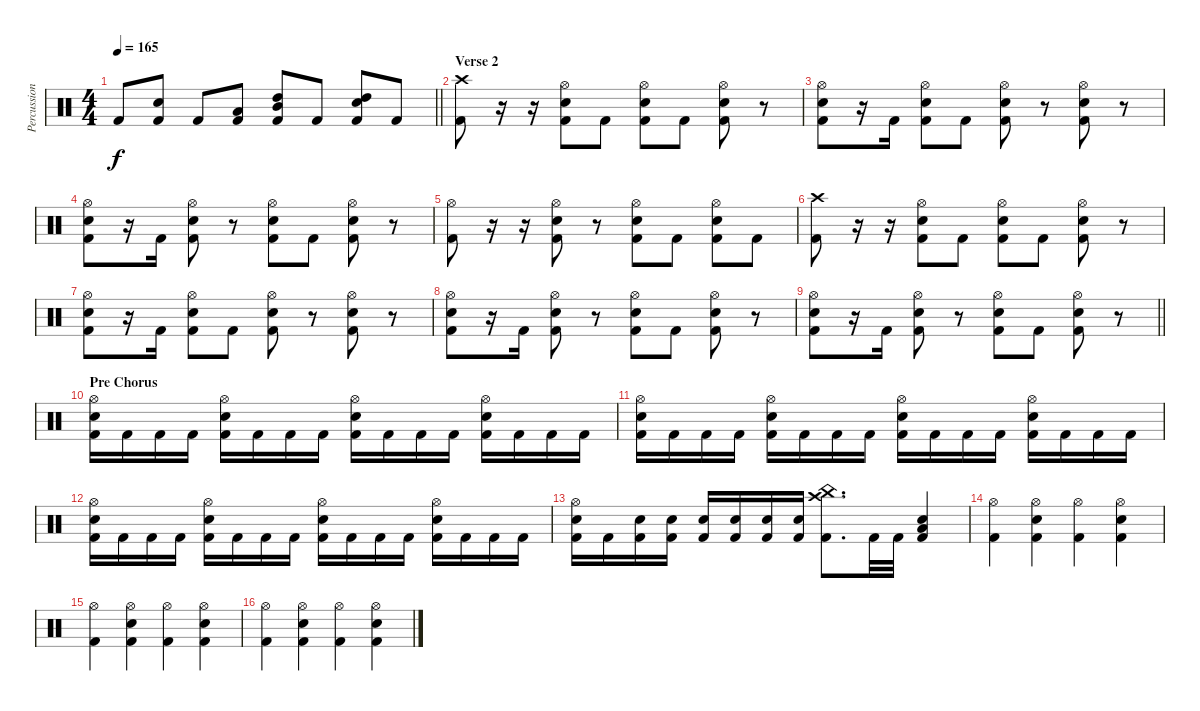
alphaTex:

\track ("Percussion" "Percussion") {instrument percussion}
\staff {score}
\articulation defaults
\ts (4 4)
\tempo 165
\clef neutral
\barLineRight lightlight
\ks c "Kick (hit) 2".8{dy f}
("Snare (hit) 2" "Kick (hit) 2").8 "Kick (hit) 2".8 ("Low Tom (hit)" "Kick (hit) 2").8 ("Mid Tom (hit)" "High Tom (hit)" "Kick (hit) 2").8 "Kick (hit) 2".8 ("Snare (hit) 2" "High Tom (hit)" "Kick (hit) 2").8 "Kick (hit) 2".8 |
\section ("" "Verse 2")
("Kick (hit) 2" "Crash high (hit)").8 r.16 r.16 ("Hi-Hat (open)" "Kick (hit) 2" "Snare (hit) 2").8 "Kick (hit) 2".8 ("Hi-Hat (open)" "Kick (hit) 2" "Snare (hit) 2").8 "Kick (hit) 2".8 ("Hi-Hat (open)" "Kick (hit) 2" "Snare (hit) 2").8 r.8 |
("Hi-Hat (open)" "Kick (hit) 2" "Snare (hit) 2").8 r.16 "Kick (hit) 2".16 ("Hi-Hat (open)" "Kick (hit) 2" "Snare (hit) 2").8 "Kick (hit) 2".8 ("Hi-Hat (open)" "Kick (hit) 2" "Snare (hit) 2").8 r.8 ("Hi-Hat (open)" "Kick (hit) 2" "Snare (hit) 2").8 r.8 |
("Hi-Hat (open)" "Kick (hit) 2" "Snare (hit) 2").8 r.16 "Kick (hit) 2".16 ("Hi-Hat (open)" "Kick (hit) 2" "Snare (hit) 2").8 r.8 ("Hi-Hat (open)" "Kick (hit) 2" "Snare (hit) 2").8 "Kick (hit) 2".8 ("Hi-Hat (open)" "Kick (hit) 2" "Snare (hit) 2").8 r.8 |
("Kick (hit) 2" "Hi-Hat (open)").8 r.16 r.16 ("Hi-Hat (open)" "Kick (hit) 2" "Snare (hit) 2").8 r.8 ("Hi-Hat (open)" "Kick (hit) 2" "Snare (hit) 2").8 "Kick (hit) 2".8 ("Hi-Hat (open)" "Kick (hit) 2" "Snare (hit) 2").8 "Kick (hit) 2".8 |
("Kick (hit) 2" "Crash high (hit)").8 r.16 r.16 ("Hi-Hat (open)" "Kick (hit) 2" "Snare (hit) 2").8 "Kick (hit) 2".8 ("Hi-Hat (open)" "Kick (hit) 2" "Snare (hit) 2").8 "Kick (hit) 2".8 ("Hi-Hat (open)" "Kick (hit) 2" "Snare (hit) 2").8 r.8 |
("Hi-Hat (open)" "Kick (hit) 2" "Snare (hit) 2").8 r.16 "Kick (hit) 2".16 ("Hi-Hat (open)" "Kick (hit) 2" "Snare (hit) 2").8 "Kick (hit) 2".8 ("Hi-Hat (open)" "Kick (hit) 2" "Snare (hit) 2").8 r.8 ("Hi-Hat (open)" "Kick (hit) 2" "Snare (hit) 2").8 r.8 |
("Hi-Hat (open)" "Kick (hit) 2" "Snare (hit) 2").8 r.16 "Kick (hit) 2".16 ("Hi-Hat (open)" "Kick (hit) 2" "Snare (hit) 2").8 r.8 ("Hi-Hat (open)" "Kick (hit) 2" "Snare (hit) 2").8 "Kick (hit) 2".8 ("Hi-Hat (open)" "Kick (hit) 2" "Snare (hit) 2").8 r.8 |
\barLineRight lightlight
("Hi-Hat (open)" "Kick (hit) 2" "Snare (hit) 2").8 r.16 "Kick (hit) 2".16 ("Hi-Hat (open)" "Kick (hit) 2" "Snare (hit) 2").8 r.8 ("Hi-Hat (open)" "Kick (hit) 2" "Snare (hit) 2").8 "Kick (hit) 2".8 ("Hi-Hat (open)" "Kick (hit) 2" "Snare (hit) 2").8 r.8 |
\section ("" "Pre Chorus")
("Kick (hit) 2" "Hi-Hat (open)" "Snare (hit) 2").16 "Kick (hit) 2".16 "Kick (hit) 2".16 "Kick (hit) 2".16 ("Kick (hit) 2" "Hi-Hat (open)" "Snare (hit) 2").16 "Kick (hit) 2".16 "Kick (hit) 2".16 "Kick (hit) 2".16 ("Kick (hit) 2" "Hi-Hat (open)" "Snare (hit) 2").16 "Kick (hit) 2".16 "Kick (hit) 2".16 "Kick (hit) 2".16 ("Kick (hit) 2" "Hi-Hat (open)" "Snare (hit) 2").16 "Kick (hit) 2".16 "Kick (hit) 2".16 "Kick (hit) 2".16 |
("Kick (hit) 2" "Hi-Hat (open)" "Snare (hit) 2").16 "Kick (hit) 2".16 "Kick (hit) 2".16 "Kick (hit) 2".16 ("Kick (hit) 2" "Hi-Hat (open)" "Snare (hit) 2").16 "Kick (hit) 2".16 "Kick (hit) 2".16 "Kick (hit) 2".16 ("Kick (hit) 2" "Hi-Hat (open)" "Snare (hit) 2").16 "Kick (hit) 2".16 "Kick (hit) 2".16 "Kick (hit) 2".16 ("Kick (hit) 2" "Hi-Hat (open)" "Snare (hit) 2").16 "Kick (hit) 2".16 "Kick (hit) 2".16 "Kick (hit) 2".16 |
("Kick (hit) 2" "Hi-Hat (open)" "Snare (hit) 2").16 "Kick (hit) 2".16 "Kick (hit) 2".16 "Kick (hit) 2".16 ("Kick (hit) 2" "Hi-Hat (open)" "Snare (hit) 2").16 "Kick (hit) 2".16 "Kick (hit) 2".16 "Kick (hit) 2".16 ("Kick (hit) 2" "Hi-Hat (open)" "Snare (hit) 2").16 "Kick (hit) 2".16 "Kick (hit) 2".16 "Kick (hit) 2".16 ("Kick (hit) 2" "Hi-Hat (open)" "Snare (hit) 2").16 "Kick (hit) 2".16 "Kick (hit) 2".16 "Kick (hit) 2".16 |
("Kick (hit) 2" "Hi-Hat (open)" "Snare (hit) 2").16 "Kick (hit) 2".16 ("Kick (hit) 2" "Snare (hit) 2").16 ("Kick (hit) 2" "Snare (hit) 2").16 ("Kick (hit) 2" "Snare (hit) 2").16 ("Kick (hit) 2" "Snare (hit) 2").16 ("Kick (hit) 2" "Snare (hit) 2").16 ("Kick (hit) 2" "Snare (hit) 2").16 ("Kick (hit) 2" "Crash high (hit)" "China (hit)").8{d} "Kick (hit) 2".32 "Kick (hit) 2".32 ("Kick (hit) 2" "Low Tom (hit)" "Snare (hit) 2").4 |
("Kick (hit) 2" "Hi-Hat (open)").4 ("Hi-Hat (open)" "Snare (hit) 2" "Kick (hit) 2").4 ("Kick (hit) 2" "Hi-Hat (open)").4 ("Hi-Hat (open)" "Snare (hit) 2" "Kick (hit) 2").4 |
("Kick (hit) 2" "Hi-Hat (open)").4 ("Hi-Hat (open)" "Snare (hit) 2" "Kick (hit) 2").4 ("Kick (hit) 2" "Hi-Hat (open)").4 ("Hi-Hat (open)" "Snare (hit) 2" "Kick (hit) 2").4 |
("Kick (hit) 2" "Hi-Hat (open)").4 ("Hi-Hat (open)" "Snare (hit) 2" "Kick (hit) 2").4 ("Kick (hit) 2" "Hi-Hat (open)").4 ("Hi-Hat (open)" "Snare (hit) 2" "Kick (hit) 2").4
